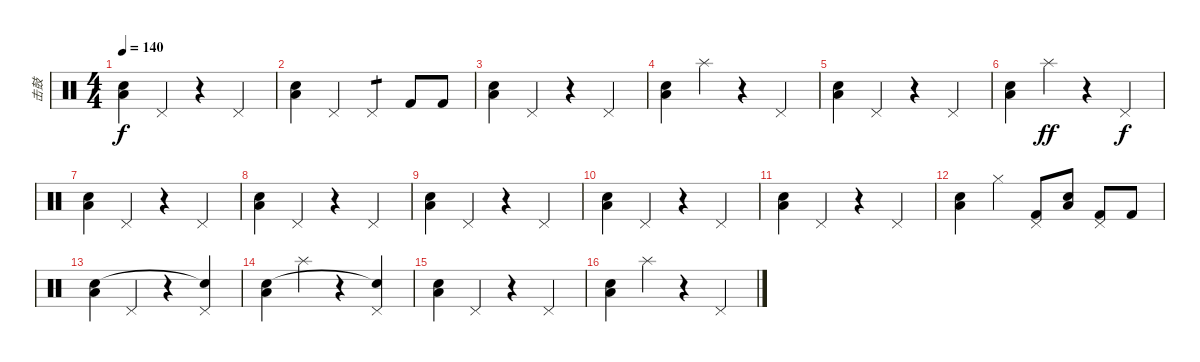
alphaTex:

\track ("击鼓" "击鼓") {instrument percussion}
\staff {score}
\articulation defaults
\ts (4 4)
\tempo 140
\clef neutral
\ks c
("Low Floor Tom (hit)" "Snare (hit) 2").4{dy f} "Pedal Hi-Hat (hit)".4 r.4 "Pedal Hi-Hat (hit)".4 |
("Low Floor Tom (hit)" "Snare (hit) 2").4 "Pedal Hi-Hat (hit)".4 "Pedal Hi-Hat (hit)".4{tp 1} "Kick (hit) 2".8 "Kick (hit) 2".8 |
("Low Floor Tom (hit)" "Snare (hit) 2").4 "Pedal Hi-Hat (hit)".4 r.4 "Pedal Hi-Hat (hit)".4 |
("Low Floor Tom (hit)" "Snare (hit) 2").4 "Splash (hit)".4 r.4 "Pedal Hi-Hat (hit)".4 |
("Low Floor Tom (hit)" "Snare (hit) 2").4 "Pedal Hi-Hat (hit)".4 r.4 "Pedal Hi-Hat (hit)".4 |
("Low Floor Tom (hit)" "Snare (hit) 2").4 "Splash (hit)".4{dy ff} r.4 "Pedal Hi-Hat (hit)".4{dy f} |
("Low Floor Tom (hit)" "Snare (hit) 2").4 "Pedal Hi-Hat (hit)".4 r.4 "Pedal Hi-Hat (hit)".4 |
("Low Floor Tom (hit)" "Snare (hit) 2").4 "Pedal Hi-Hat (hit)".4 r.4 "Pedal Hi-Hat (hit)".4 |
("Low Floor Tom (hit)" "Snare (hit) 2").4 "Pedal Hi-Hat (hit)".4 r.4 "Pedal Hi-Hat (hit)".4 |
("Low Floor Tom (hit)" "Snare (hit) 2").4 "Pedal Hi-Hat (hit)".4 r.4 "Pedal Hi-Hat (hit)".4 |
("Low Floor Tom (hit)" "Snare (hit) 2").4 "Pedal Hi-Hat (hit)".4 r.4 "Pedal Hi-Hat (hit)".4 |
("Low Floor Tom (hit)" "Snare (hit) 2").4 "Hi-Hat (closed)".4 ("Pedal Hi-Hat (hit)" "Kick (hit) 2").8 ("Low Floor Tom (hit)" "Snare (hit) 2").8 ("Pedal Hi-Hat (hit)" "Kick (hit) 2").8 "Kick (hit) 2".8 |
("Low Floor Tom (hit)" "Snare (hit) 2").4 "Pedal Hi-Hat (hit)".4 r.4 ("Pedal Hi-Hat (hit)" "Snare (hit)"{t}).4 |
("Low Floor Tom (hit)" "Snare (hit) 2").4 "Splash (hit)".4 r.4 ("Pedal Hi-Hat (hit)" "Snare (hit)"{t}).4 |
("Low Floor Tom (hit)" "Snare (hit) 2").4 "Pedal Hi-Hat (hit)".4 r.4 "Pedal Hi-Hat (hit)".4 |
("Low Floor Tom (hit)" "Snare (hit) 2").4 "Splash (hit)".4 r.4 "Pedal Hi-Hat (hit)".4
